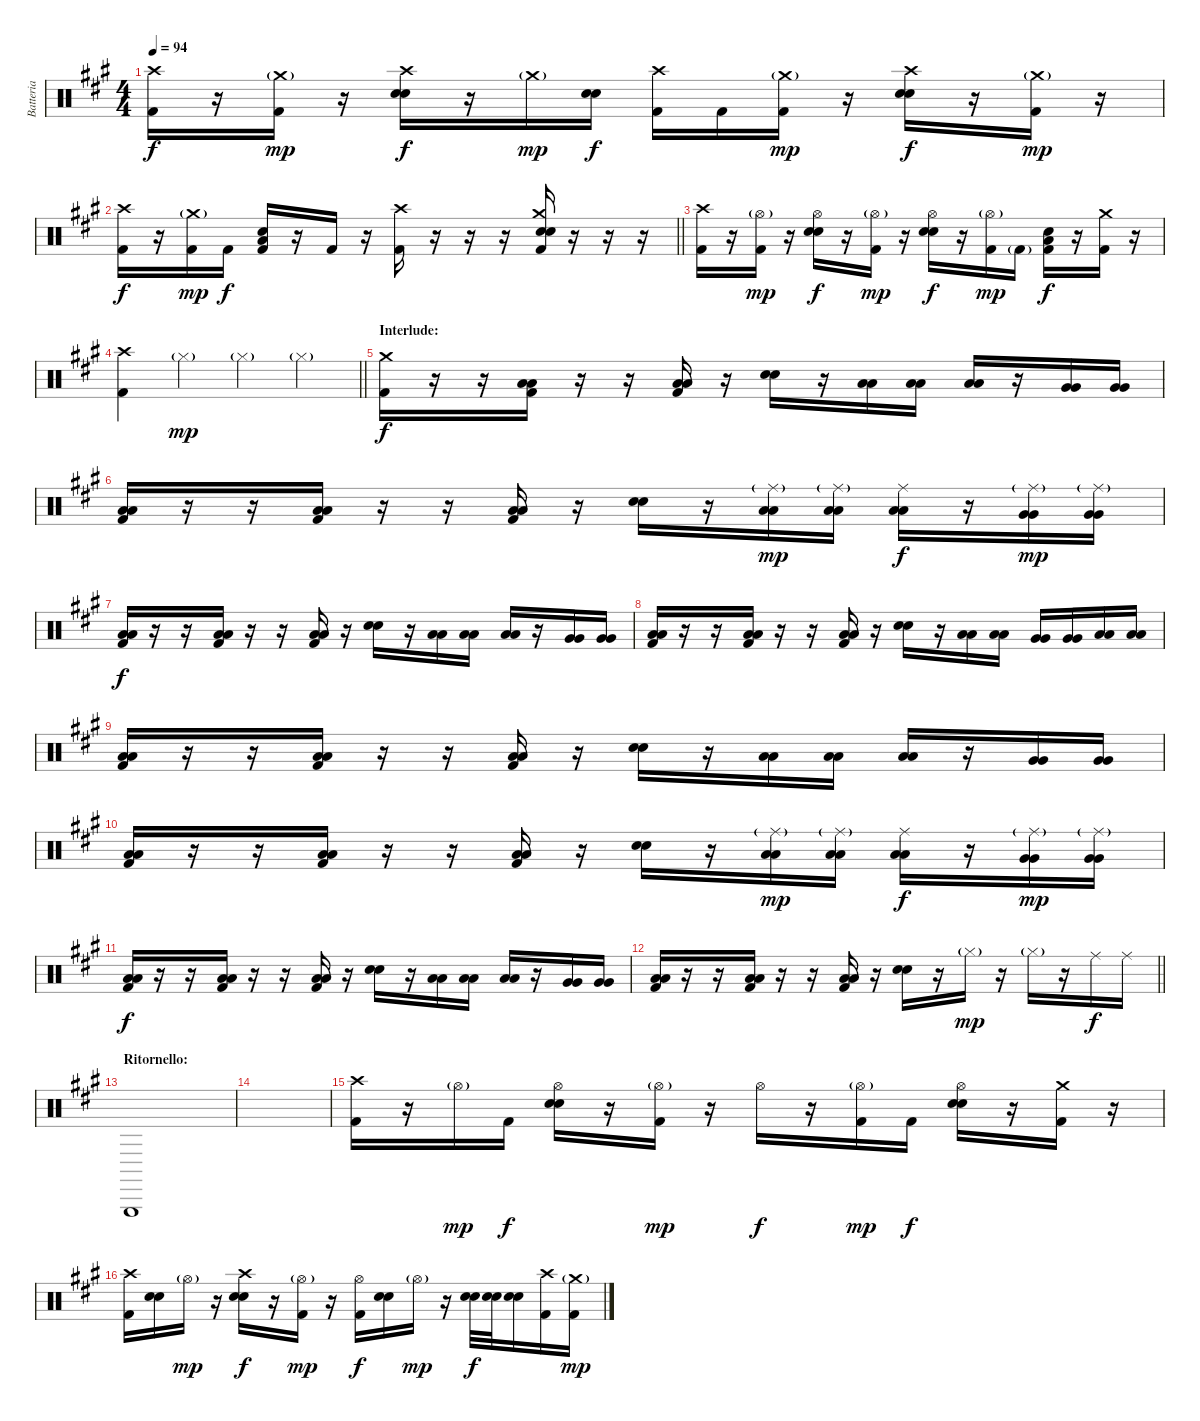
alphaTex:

\track ("Batteria" "Batteria") {instrument percussion}
\staff {score}
\articulation defaults
\ts (4 4)
\tempo 94
\clef neutral
\ks a
("Kick (hit) 2" "Crash high (hit)").16{dy f} r.16 ("Kick (hit) 2" "Crash medium (hit)"{g}).16{dy mp} r.16 ("Snare (hit) 2" "Snare (hit) 2" "Crash high (hit)").16{dy f} r.16 "Crash medium (hit)"{g}.16{dy mp} ("Snare (hit) 2" "Snare (hit) 2").16{dy f} ("Kick (hit) 2" "Crash high (hit)").16 "Kick (hit) 2".16 ("Kick (hit) 2" "Crash medium (hit)"{g}).16{dy mp} r.16 ("Snare (hit) 2" "Snare (hit) 2" "Crash high (hit)").16{dy f} r.16 ("Kick (hit) 2" "Crash medium (hit)"{g}).16{dy mp} r.16 |
\barLineRight lightlight
("Kick (hit) 2" "Crash high (hit)").16{dy f} r.16 ("Kick (hit) 2" "Crash medium (hit)"{g}).16{dy mp} "Kick (hit) 2".16{dy f} ("Kick (hit) 2" "Snare (hit) 2" "Low Floor Tom (hit)").16 r.16 "Kick (hit) 2".16 r.16 ("Kick (hit) 2" "Crash high (hit)").16 r.16 r.16 r.16 ("Kick (hit) 2" "Snare (hit) 2" "Snare (hit) 2" "Crash medium (hit)").16 r.16 r.16 r.16 |
("Kick (hit) 2" "Crash high (hit)").16 r.16 ("Kick (hit) 2" "Hi-Hat (open)"{g}).16{dy mp} r.16 ("Snare (hit) 2" "Snare (hit) 2" "Hi-Hat (open)").16{dy f} r.16 ("Kick (hit) 2" "Hi-Hat (open)"{g}).16{dy mp} r.16 ("Snare (hit) 2" "Snare (hit) 2" "Hi-Hat (open)").16{dy f} r.16 ("Kick (hit) 2" "Hi-Hat (open)"{g}).16{dy mp} "Kick (hit) 2"{g}.16 ("Kick (hit) 2" "Snare (hit) 2" "Low Floor Tom (hit)").16{dy f} r.16 ("Kick (hit) 2" "Crash medium (hit)").16 r.16 |
\barLineRight lightlight
("Kick (hit) 2" "Crash high (hit)").4 "Hi-Hat (closed)"{g}.4{dy mp} "Hi-Hat (closed)"{g}.4 "Hi-Hat (closed)"{g}.4 |
\section ("" "Interlude:")
("Kick (hit) 2" "Crash medium (hit)").16{dy f} r.16 r.16 ("Kick (hit) 2" "Low Floor Tom (hit)" "Low Floor Tom (hit)").16 r.16 r.16 ("Kick (hit) 2" "Low Floor Tom (hit)" "Low Floor Tom (hit)").16 r.16 ("Snare (hit) 2" "Snare (hit) 2").16 r.16 ("Low Tom (hit)" "Low Tom (hit)").16 ("Low Tom (hit)" "Low Tom (hit)").16 ("Low Tom (hit)" "Low Tom (hit)").16 r.16 ("Very Low Tom (hit)" "Very Low Tom (hit)").16 ("Very Low Tom (hit)" "Very Low Tom (hit)").16 |
("Kick (hit) 2" "Low Floor Tom (hit)" "Low Floor Tom (hit)").16 r.16 r.16 ("Kick (hit) 2" "Low Floor Tom (hit)" "Low Floor Tom (hit)").16 r.16 r.16 ("Kick (hit) 2" "Low Floor Tom (hit)" "Low Floor Tom (hit)").16 r.16 ("Snare (hit) 2" "Snare (hit) 2").16 r.16 ("Low Tom (hit)" "Low Tom (hit)" "Ride (middle)"{g}).16{dy mp} ("Low Tom (hit)" "Low Tom (hit)" "Ride (middle)"{g}).16 ("Low Tom (hit)" "Low Tom (hit)" "Ride (middle)").16{dy f} r.16 ("Very Low Tom (hit)" "Very Low Tom (hit)" "Ride (middle)"{g}).16{dy mp} ("Very Low Tom (hit)" "Very Low Tom (hit)" "Ride (middle)"{g}).16 |
("Kick (hit) 2" "Low Floor Tom (hit)" "Low Floor Tom (hit)").16{dy f} r.16 r.16 ("Kick (hit) 2" "Low Floor Tom (hit)" "Low Floor Tom (hit)").16 r.16 r.16 ("Kick (hit) 2" "Low Floor Tom (hit)" "Low Floor Tom (hit)").16 r.16 ("Snare (hit) 2" "Snare (hit) 2").16 r.16 ("Low Tom (hit)" "Low Tom (hit)").16 ("Low Tom (hit)" "Low Tom (hit)").16 ("Low Tom (hit)" "Low Tom (hit)").16 r.16 ("Very Low Tom (hit)" "Very Low Tom (hit)").16 ("Very Low Tom (hit)" "Very Low Tom (hit)").16 |
("Kick (hit) 2" "Low Floor Tom (hit)" "Low Floor Tom (hit)").16 r.16 r.16 ("Kick (hit) 2" "Low Floor Tom (hit)" "Low Floor Tom (hit)").16 r.16 r.16 ("Kick (hit) 2" "Low Floor Tom (hit)" "Low Floor Tom (hit)").16 r.16 ("Snare (hit) 2" "Snare (hit) 2").16 r.16 ("Low Tom (hit)" "Low Tom (hit)").16 ("Low Tom (hit)" "Low Tom (hit)").16 ("Very Low Tom (hit)" "Very Low Tom (hit)").16 ("Very Low Tom (hit)" "Very Low Tom (hit)").16 ("Low Floor Tom (hit)" "Low Floor Tom (hit)").16 ("Low Floor Tom (hit)" "Low Floor Tom (hit)").16 |
("Kick (hit) 2" "Low Floor Tom (hit)" "Low Floor Tom (hit)").16 r.16 r.16 ("Kick (hit) 2" "Low Floor Tom (hit)" "Low Floor Tom (hit)").16 r.16 r.16 ("Kick (hit) 2" "Low Floor Tom (hit)" "Low Floor Tom (hit)").16 r.16 ("Snare (hit) 2" "Snare (hit) 2").16 r.16 ("Low Tom (hit)" "Low Tom (hit)").16 ("Low Tom (hit)" "Low Tom (hit)").16 ("Low Tom (hit)" "Low Tom (hit)").16 r.16 ("Very Low Tom (hit)" "Very Low Tom (hit)").16 ("Very Low Tom (hit)" "Very Low Tom (hit)").16 |
("Kick (hit) 2" "Low Floor Tom (hit)" "Low Floor Tom (hit)").16 r.16 r.16 ("Kick (hit) 2" "Low Floor Tom (hit)" "Low Floor Tom (hit)").16 r.16 r.16 ("Kick (hit) 2" "Low Floor Tom (hit)" "Low Floor Tom (hit)").16 r.16 ("Snare (hit) 2" "Snare (hit) 2").16 r.16 ("Low Tom (hit)" "Low Tom (hit)" "Ride (middle)"{g}).16{dy mp} ("Low Tom (hit)" "Low Tom (hit)" "Ride (middle)"{g}).16 ("Low Tom (hit)" "Low Tom (hit)" "Ride (middle)").16{dy f} r.16 ("Very Low Tom (hit)" "Very Low Tom (hit)" "Ride (middle)"{g}).16{dy mp} ("Very Low Tom (hit)" "Very Low Tom (hit)" "Ride (middle)"{g}).16 |
("Kick (hit) 2" "Low Floor Tom (hit)" "Low Floor Tom (hit)").16{dy f} r.16 r.16 ("Kick (hit) 2" "Low Floor Tom (hit)" "Low Floor Tom (hit)").16 r.16 r.16 ("Kick (hit) 2" "Low Floor Tom (hit)" "Low Floor Tom (hit)").16 r.16 ("Snare (hit) 2" "Snare (hit) 2").16 r.16 ("Low Tom (hit)" "Low Tom (hit)").16 ("Low Tom (hit)" "Low Tom (hit)").16 ("Low Tom (hit)" "Low Tom (hit)").16 r.16 ("Very Low Tom (hit)" "Very Low Tom (hit)").16 ("Very Low Tom (hit)" "Very Low Tom (hit)").16 |
\barLineRight lightlight
("Kick (hit) 2" "Low Floor Tom (hit)" "Low Floor Tom (hit)").16 r.16 r.16 ("Kick (hit) 2" "Low Floor Tom (hit)" "Low Floor Tom (hit)").16 r.16 r.16 ("Kick (hit) 2" "Low Floor Tom (hit)" "Low Floor Tom (hit)").16 r.16 ("Snare (hit) 2" "Snare (hit) 2").16 r.16 "Hi-Hat (closed)"{g}.16{dy mp} r.16 "Hi-Hat (closed)"{g}.16 r.16 "Ride (middle)".16{dy f} "Ride (middle)".16 |
\section ("" "Ritornello:")
"Triangle (hit)".1 |
|
("Kick (hit) 2" "Crash high (hit)").16 r.16 "Hi-Hat (open)"{g}.16{dy mp} "Kick (hit) 2".16{dy f} ("Snare (hit) 2" "Snare (hit) 2" "Hi-Hat (open)").16 r.16 ("Kick (hit) 2" "Hi-Hat (open)"{g}).16{dy mp} r.16 "Hi-Hat (open)".16{dy f} r.16 ("Kick (hit) 2" "Hi-Hat (open)"{g}).16{dy mp} "Kick (hit) 2".16{dy f} ("Snare (hit) 2" "Snare (hit) 2" "Hi-Hat (open)").16 r.16 ("Kick (hit) 2" "Crash medium (hit)").16 r.16 |
("Kick (hit) 2" "Crash high (hit)").16 ("Snare (hit) 2" "Snare (hit) 2").16 "Hi-Hat (open)"{g}.16{dy mp} r.16 ("Snare (hit) 2" "Snare (hit) 2" "Crash high (hit)").16{dy f} r.16 ("Kick (hit) 2" "Hi-Hat (open)"{g}).16{dy mp} r.16 ("Kick (hit) 2" "Hi-Hat (open)").16{dy f} ("Snare (hit) 2" "Snare (hit) 2").16 "Hi-Hat (open)"{g}.16{dy mp} r.16 ("Snare (hit) 2" "Snare (hit) 2").32{dy f} ("Snare (hit) 2" "Snare (hit) 2").32 ("Snare (hit) 2" "Snare (hit) 2").16 ("Kick (hit) 2" "Crash high (hit)").16 ("Kick (hit) 2" "Crash medium (hit)"{g}).16{dy mp}
